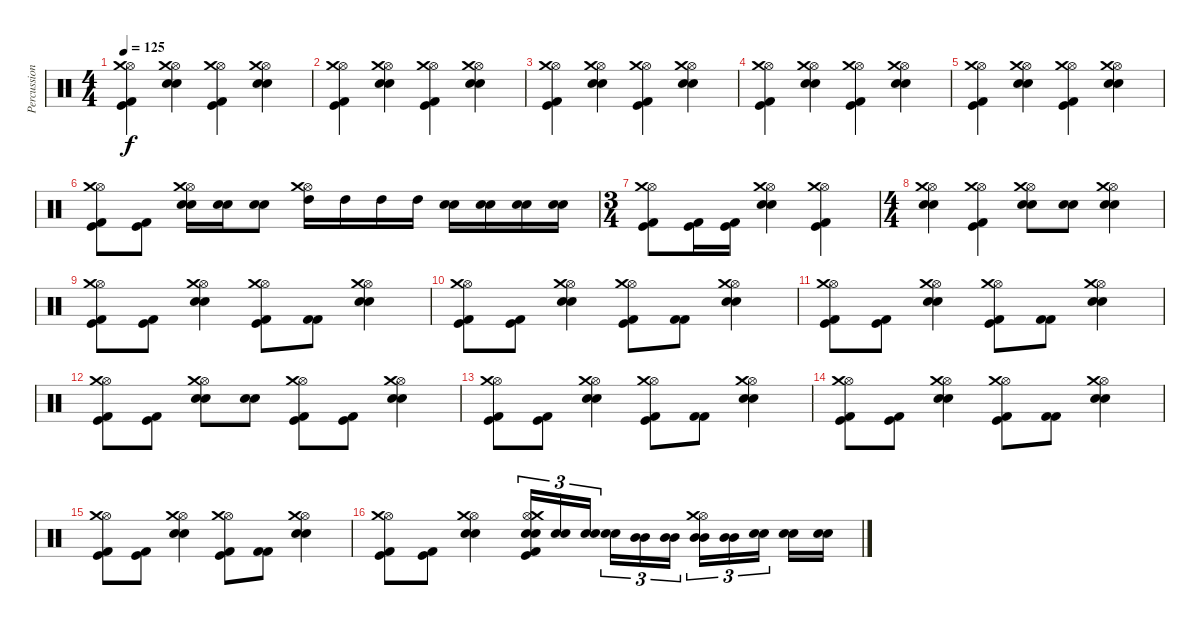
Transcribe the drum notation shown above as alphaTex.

\track ("Percussions" "Percussion") {instrument percussion}
\staff {score}
\articulation defaults
\ts (4 4)
\tempo 125
\clef neutral
\ks c
("Kick (hit)" "Kick (hit) 2" "Hi-Hat (open)" "Crash medium (hit)").4{dy f} ("Snare (hit) 2" "Snare (hit) 2" "Hi-Hat (open)" "Crash medium (hit)").4 ("Kick (hit)" "Kick (hit) 2" "Hi-Hat (open)" "Crash medium (hit)").4 ("Snare (hit) 2" "Snare (hit) 2" "Hi-Hat (open)" "Crash medium (hit)").4 |
("Kick (hit)" "Kick (hit) 2" "Hi-Hat (open)" "Crash medium (hit)").4 ("Snare (hit) 2" "Snare (hit) 2" "Hi-Hat (open)" "Crash medium (hit)").4 ("Kick (hit)" "Kick (hit) 2" "Hi-Hat (open)" "Crash medium (hit)").4 ("Snare (hit) 2" "Snare (hit) 2" "Hi-Hat (open)" "Crash medium (hit)").4 |
("Kick (hit)" "Kick (hit) 2" "Hi-Hat (open)" "Crash medium (hit)").4 ("Snare (hit) 2" "Snare (hit) 2" "Hi-Hat (open)" "Crash medium (hit)").4 ("Kick (hit)" "Kick (hit) 2" "Hi-Hat (open)" "Crash medium (hit)").4 ("Snare (hit) 2" "Snare (hit) 2" "Hi-Hat (open)" "Crash medium (hit)").4 |
("Kick (hit)" "Kick (hit) 2" "Hi-Hat (open)" "Crash medium (hit)").4 ("Snare (hit) 2" "Snare (hit) 2" "Hi-Hat (open)" "Crash medium (hit)").4 ("Kick (hit)" "Kick (hit) 2" "Hi-Hat (open)" "Crash medium (hit)").4 ("Snare (hit) 2" "Snare (hit) 2" "Hi-Hat (open)" "Crash medium (hit)").4 |
("Kick (hit)" "Kick (hit) 2" "Hi-Hat (open)" "Crash medium (hit)").4 ("Snare (hit) 2" "Snare (hit) 2" "Hi-Hat (open)" "Crash medium (hit)").4 ("Kick (hit)" "Kick (hit) 2" "Hi-Hat (open)" "Crash medium (hit)").4 ("Snare (hit) 2" "Snare (hit) 2" "Hi-Hat (open)" "Crash medium (hit)").4 |
("Kick (hit)" "Kick (hit) 2" "Hi-Hat (open)" "Crash medium (hit)").8 ("Kick (hit)" "Kick (hit) 2").8 ("Snare (hit) 2" "Snare (hit) 2" "Hi-Hat (open)" "Crash medium (hit)").16 ("Snare (hit) 2" "Snare (hit) 2").16 ("Snare (hit) 2" "Snare (hit) 2").8 ("High Tom (hit)" "Hi-Hat (open)" "Crash medium (hit)").16 "High Tom (hit)".16 "High Tom (hit)".16 "High Tom (hit)".16 ("Snare (hit) 2" "Snare (hit) 2").16 ("Snare (hit) 2" "Snare (hit) 2").16 ("Snare (hit) 2" "Snare (hit) 2").16 ("Snare (hit) 2" "Snare (hit) 2").16 |
\ts (3 4)
("Kick (hit)" "Kick (hit) 2" "Hi-Hat (open)" "Crash medium (hit)").8 ("Kick (hit)" "Kick (hit) 2").16 ("Kick (hit)" "Kick (hit) 2").16 ("Snare (hit) 2" "Snare (hit) 2" "Hi-Hat (open)" "Crash medium (hit)").4 ("Kick (hit)" "Kick (hit) 2" "Hi-Hat (open)" "Crash medium (hit)").4 |
\ts (4 4)
("Snare (hit) 2" "Snare (hit) 2" "Hi-Hat (open)" "Crash medium (hit)").4 ("Kick (hit)" "Kick (hit) 2" "Hi-Hat (open)" "Crash medium (hit)").4 ("Snare (hit) 2" "Snare (hit) 2" "Hi-Hat (open)" "Crash medium (hit)").8 ("Snare (hit) 2" "Snare (hit) 2").8 ("Snare (hit) 2" "Snare (hit) 2" "Hi-Hat (open)" "Crash medium (hit)").4 |
("Kick (hit)" "Kick (hit) 2" "Hi-Hat (open)" "Crash medium (hit)").8 ("Kick (hit)" "Kick (hit) 2").8 ("Snare (hit) 2" "Snare (hit) 2" "Hi-Hat (open)" "Crash medium (hit)").4 ("Kick (hit)" "Kick (hit) 2" "Hi-Hat (open)" "Crash medium (hit)").8 ("Kick (hit) 2" "Kick (hit) 2").8 ("Snare (hit) 2" "Snare (hit) 2" "Hi-Hat (open)" "Crash medium (hit)").4 |
("Kick (hit)" "Kick (hit) 2" "Hi-Hat (open)" "Crash medium (hit)").8 ("Kick (hit)" "Kick (hit) 2").8 ("Snare (hit) 2" "Snare (hit) 2" "Hi-Hat (open)" "Crash medium (hit)").4 ("Kick (hit)" "Kick (hit) 2" "Hi-Hat (open)" "Crash medium (hit)").8 ("Kick (hit) 2" "Kick (hit) 2").8 ("Snare (hit) 2" "Snare (hit) 2" "Hi-Hat (open)" "Crash medium (hit)").4 |
("Kick (hit)" "Kick (hit) 2" "Hi-Hat (open)" "Crash medium (hit)").8 ("Kick (hit)" "Kick (hit) 2").8 ("Snare (hit) 2" "Snare (hit) 2" "Hi-Hat (open)" "Crash medium (hit)").4 ("Kick (hit)" "Kick (hit) 2" "Hi-Hat (open)" "Crash medium (hit)").8 ("Kick (hit) 2" "Kick (hit) 2").8 ("Snare (hit) 2" "Snare (hit) 2" "Hi-Hat (open)" "Crash medium (hit)").4 |
("Kick (hit)" "Kick (hit) 2" "Hi-Hat (open)" "Crash medium (hit)").8 ("Kick (hit)" "Kick (hit) 2").8 ("Snare (hit) 2" "Snare (hit) 2" "Hi-Hat (open)" "Crash medium (hit)").8 ("Snare (hit) 2" "Snare (hit) 2").8 ("Kick (hit)" "Kick (hit) 2" "Hi-Hat (open)" "Crash medium (hit)").8 ("Kick (hit)" "Kick (hit) 2").8 ("Snare (hit) 2" "Snare (hit) 2" "Hi-Hat (open)" "Crash medium (hit)").4 |
("Kick (hit)" "Kick (hit) 2" "Hi-Hat (open)" "Crash medium (hit)").8 ("Kick (hit)" "Kick (hit) 2").8 ("Snare (hit) 2" "Snare (hit) 2" "Hi-Hat (open)" "Crash medium (hit)").4 ("Kick (hit)" "Kick (hit) 2" "Hi-Hat (open)" "Crash medium (hit)").8 ("Kick (hit) 2" "Kick (hit) 2").8 ("Snare (hit) 2" "Snare (hit) 2" "Hi-Hat (open)" "Crash medium (hit)").4 |
("Kick (hit)" "Kick (hit) 2" "Hi-Hat (open)" "Crash medium (hit)").8 ("Kick (hit)" "Kick (hit) 2").8 ("Snare (hit) 2" "Snare (hit) 2" "Hi-Hat (open)" "Crash medium (hit)").4 ("Kick (hit)" "Kick (hit) 2" "Hi-Hat (open)" "Crash medium (hit)").8 ("Kick (hit) 2" "Kick (hit) 2").8 ("Snare (hit) 2" "Snare (hit) 2" "Hi-Hat (open)" "Crash medium (hit)").4 |
("Kick (hit)" "Kick (hit) 2" "Hi-Hat (open)" "Crash medium (hit)").8 ("Kick (hit)" "Kick (hit) 2").8 ("Snare (hit) 2" "Snare (hit) 2" "Hi-Hat (open)" "Crash medium (hit)").4 ("Kick (hit)" "Kick (hit) 2" "Hi-Hat (open)" "Crash medium (hit)").8 ("Kick (hit) 2" "Kick (hit) 2").8 ("Snare (hit) 2" "Snare (hit) 2" "Hi-Hat (open)" "Crash medium (hit)").4 |
("Kick (hit)" "Kick (hit) 2" "Hi-Hat (open)" "Crash medium (hit)").8 ("Kick (hit)" "Kick (hit) 2").8 ("Snare (hit) 2" "Snare (hit) 2" "Hi-Hat (open)" "Crash medium (hit)").4 ("Snare (hit) 2" "Snare (hit) 2" "Kick (hit)" "Kick (hit) 2" "Hi-Hat (open)" "Crash medium (hit)").16{tu (3 2)} ("Snare (hit) 2" "Snare (hit) 2").16{tu (3 2)} ("Snare (hit) 2" "Snare (hit) 2").16{tu (3 2)} ("Snare (hit) 2" "Snare (hit) 2").16{tu (3 2)} ("Mid Tom (hit)" "Mid Tom (hit)").16{tu (3 2)} ("Mid Tom (hit)" "Mid Tom (hit)").16{tu (3 2)} ("Mid Tom (hit)" "Mid Tom (hit)" "Hi-Hat (open)" "Crash medium (hit)").16{tu (3 2)} ("Mid Tom (hit)" "Mid Tom (hit)").16{tu (3 2)} ("Snare (hit) 2" "Snare (hit) 2").16{tu (3 2)} ("Snare (hit) 2" "Snare (hit) 2").16 ("Snare (hit) 2" "Snare (hit) 2").16
